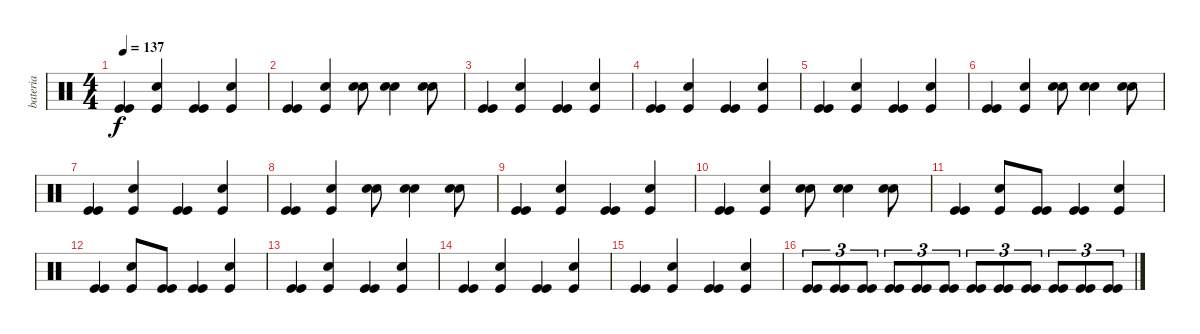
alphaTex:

\track ("bateria" "bateria") {instrument percussion}
\staff {score}
\articulation defaults
\ts (4 4)
\tempo 137
\clef neutral
\ks c
("Kick (hit)" "Kick (hit)").4{dy f} ("Kick (hit)" "Snare (hit) 2").4 ("Kick (hit)" "Kick (hit)").4 ("Snare (hit) 2" "Kick (hit)").4 |
("Kick (hit)" "Kick (hit)").4 ("Kick (hit)" "Snare (hit) 2").4 ("Snare (hit) 2" "Snare (hit) 2").8 ("Snare (hit) 2" "Snare (hit) 2").4 ("Snare (hit) 2" "Snare (hit) 2").8 |
("Kick (hit)" "Kick (hit)").4 ("Kick (hit)" "Snare (hit) 2").4 ("Kick (hit)" "Kick (hit)").4 ("Snare (hit) 2" "Kick (hit)").4 |
("Kick (hit)" "Kick (hit)").4 ("Kick (hit)" "Snare (hit) 2").4 ("Kick (hit)" "Kick (hit)").4 ("Snare (hit) 2" "Kick (hit)").4 |
("Kick (hit)" "Kick (hit)").4 ("Kick (hit)" "Snare (hit) 2").4 ("Kick (hit)" "Kick (hit)").4 ("Snare (hit) 2" "Kick (hit)").4 |
("Kick (hit)" "Kick (hit)").4 ("Kick (hit)" "Snare (hit) 2").4 ("Snare (hit) 2" "Snare (hit) 2").8 ("Snare (hit) 2" "Snare (hit) 2").4 ("Snare (hit) 2" "Snare (hit) 2").8 |
("Kick (hit)" "Kick (hit)").4 ("Kick (hit)" "Snare (hit) 2").4 ("Kick (hit)" "Kick (hit)").4 ("Snare (hit) 2" "Kick (hit)").4 |
("Kick (hit)" "Kick (hit)").4 ("Kick (hit)" "Snare (hit) 2").4 ("Snare (hit) 2" "Snare (hit) 2").8 ("Snare (hit) 2" "Snare (hit) 2").4 ("Snare (hit) 2" "Snare (hit) 2").8 |
("Kick (hit)" "Kick (hit)").4 ("Kick (hit)" "Snare (hit) 2").4 ("Kick (hit)" "Kick (hit)").4 ("Snare (hit) 2" "Kick (hit)").4 |
("Kick (hit)" "Kick (hit)").4 ("Kick (hit)" "Snare (hit) 2").4 ("Snare (hit) 2" "Snare (hit) 2").8 ("Snare (hit) 2" "Snare (hit) 2").4 ("Snare (hit) 2" "Snare (hit) 2").8 |
("Kick (hit)" "Kick (hit)").4 ("Snare (hit) 2" "Kick (hit)").8 ("Kick (hit)" "Kick (hit)").8 ("Kick (hit)" "Kick (hit)").4 ("Snare (hit) 2" "Kick (hit)").4 |
("Kick (hit)" "Kick (hit)").4 ("Snare (hit) 2" "Kick (hit)").8 ("Kick (hit)" "Kick (hit)").8 ("Kick (hit)" "Kick (hit)").4 ("Snare (hit) 2" "Kick (hit)").4 |
("Kick (hit)" "Kick (hit)").4 ("Kick (hit)" "Snare (hit) 2").4 ("Kick (hit)" "Kick (hit)").4 ("Snare (hit) 2" "Kick (hit)").4 |
("Kick (hit)" "Kick (hit)").4 ("Kick (hit)" "Snare (hit) 2").4 ("Kick (hit)" "Kick (hit)").4 ("Snare (hit) 2" "Kick (hit)").4 |
("Kick (hit)" "Kick (hit)").4 ("Kick (hit)" "Snare (hit) 2").4 ("Kick (hit)" "Kick (hit)").4 ("Snare (hit) 2" "Kick (hit)").4 |
("Kick (hit)" "Kick (hit)").8{tu (3 2)} ("Kick (hit)" "Kick (hit)").8{tu (3 2)} ("Kick (hit)" "Kick (hit)").8{tu (3 2)} ("Kick (hit)" "Kick (hit)").8{tu (3 2)} ("Kick (hit)" "Kick (hit)").8{tu (3 2)} ("Kick (hit)" "Kick (hit)").8{tu (3 2)} ("Kick (hit)" "Kick (hit)").8{tu (3 2)} ("Kick (hit)" "Kick (hit)").8{tu (3 2)} ("Kick (hit)" "Kick (hit)").8{tu (3 2)} ("Kick (hit)" "Kick (hit)").8{tu (3 2)} ("Kick (hit)" "Kick (hit)").8{tu (3 2)} ("Kick (hit)" "Kick (hit)").8{tu (3 2)}
